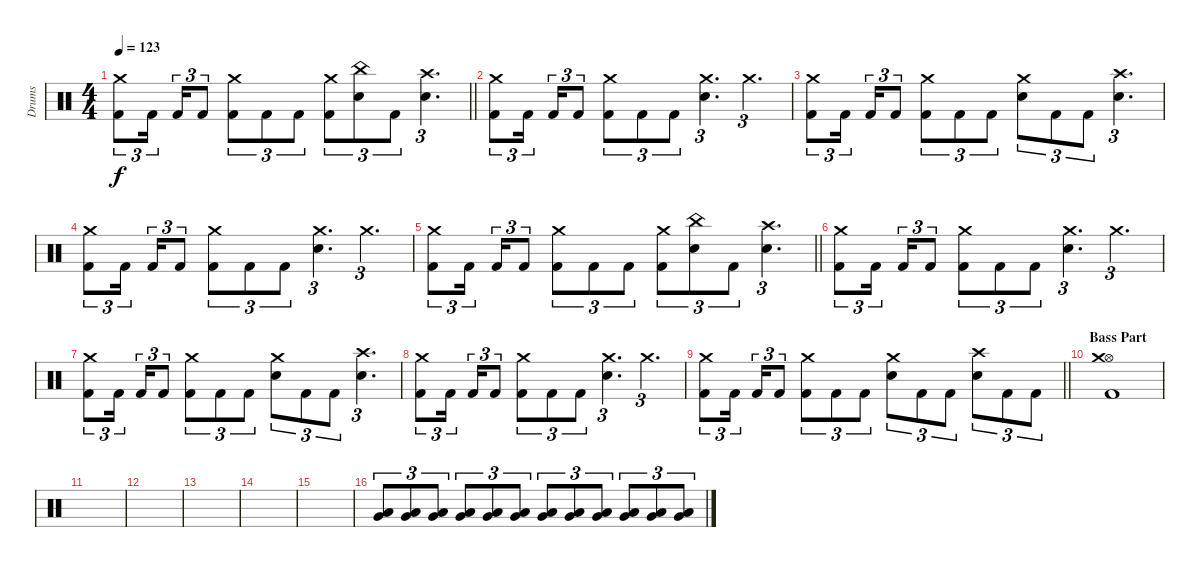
\track ("Drums" "Drums") {instrument percussion}
\staff {score}
\articulation defaults
\ts (4 4)
\tempo 123
\clef neutral
\barLineRight lightlight
\ks c
("Kick (hit) 2" "Crash medium (hit)").8{tu (3 2) dy f} "Kick (hit) 2".16{tu (3 2) beam splitsecondary} "Kick (hit) 2".16{tu (3 2)} "Kick (hit) 2".8{tu (3 2)} ("Kick (hit) 2" "Crash medium (hit)").8{tu (3 2)} "Kick (hit) 2".8{tu (3 2)} "Kick (hit) 2".8{tu (3 2)} ("Kick (hit) 2" "Crash medium (hit)").8{tu (3 2)} ("Snare (hit) 2" "China (hit)").8{tu (3 2)} "Kick (hit) 2".8{tu (3 2)} ("Snare (hit) 2" "Crash high (hit)").4{d tu (3 2)} |
\section ("" "")
("Kick (hit) 2" "Crash medium (hit)").8{tu (3 2)} "Kick (hit) 2".16{tu (3 2) beam splitsecondary} "Kick (hit) 2".16{tu (3 2)} "Kick (hit) 2".8{tu (3 2)} ("Kick (hit) 2" "Crash medium (hit)").8{tu (3 2)} "Kick (hit) 2".8{tu (3 2)} "Kick (hit) 2".8{tu (3 2)} ("Snare (hit) 2" "Crash medium (hit)").4{d tu (3 2)} "Crash medium (hit)".4{d tu (3 2)} |
("Kick (hit) 2" "Crash medium (hit)").8{tu (3 2)} "Kick (hit) 2".16{tu (3 2) beam splitsecondary} "Kick (hit) 2".16{tu (3 2)} "Kick (hit) 2".8{tu (3 2)} ("Kick (hit) 2" "Crash medium (hit)").8{tu (3 2)} "Kick (hit) 2".8{tu (3 2)} "Kick (hit) 2".8{tu (3 2)} ("Snare (hit) 2" "Crash medium (hit)").8{tu (3 2)} "Kick (hit) 2".8{tu (3 2)} "Kick (hit) 2".8{tu (3 2)} ("Snare (hit) 2" "Crash high (hit)").4{d tu (3 2)} |
("Kick (hit) 2" "Crash medium (hit)").8{tu (3 2)} "Kick (hit) 2".16{tu (3 2) beam splitsecondary} "Kick (hit) 2".16{tu (3 2)} "Kick (hit) 2".8{tu (3 2)} ("Kick (hit) 2" "Crash medium (hit)").8{tu (3 2)} "Kick (hit) 2".8{tu (3 2)} "Kick (hit) 2".8{tu (3 2)} ("Snare (hit) 2" "Crash medium (hit)").4{d tu (3 2)} "Crash medium (hit)".4{d tu (3 2)} |
\barLineRight lightlight
("Kick (hit) 2" "Crash medium (hit)").8{tu (3 2)} "Kick (hit) 2".16{tu (3 2) beam splitsecondary} "Kick (hit) 2".16{tu (3 2)} "Kick (hit) 2".8{tu (3 2)} ("Kick (hit) 2" "Crash medium (hit)").8{tu (3 2)} "Kick (hit) 2".8{tu (3 2)} "Kick (hit) 2".8{tu (3 2)} ("Kick (hit) 2" "Crash medium (hit)").8{tu (3 2)} ("Snare (hit) 2" "China (hit)").8{tu (3 2)} "Kick (hit) 2".8{tu (3 2)} ("Snare (hit) 2" "Crash high (hit)").4{d tu (3 2)} |
\section ("" "")
("Kick (hit) 2" "Crash medium (hit)").8{tu (3 2)} "Kick (hit) 2".16{tu (3 2) beam splitsecondary} "Kick (hit) 2".16{tu (3 2)} "Kick (hit) 2".8{tu (3 2)} ("Kick (hit) 2" "Crash medium (hit)").8{tu (3 2)} "Kick (hit) 2".8{tu (3 2)} "Kick (hit) 2".8{tu (3 2)} ("Snare (hit) 2" "Crash medium (hit)").4{d tu (3 2)} "Crash medium (hit)".4{d tu (3 2)} |
("Kick (hit) 2" "Crash medium (hit)").8{tu (3 2)} "Kick (hit) 2".16{tu (3 2) beam splitsecondary} "Kick (hit) 2".16{tu (3 2)} "Kick (hit) 2".8{tu (3 2)} ("Kick (hit) 2" "Crash medium (hit)").8{tu (3 2)} "Kick (hit) 2".8{tu (3 2)} "Kick (hit) 2".8{tu (3 2)} ("Snare (hit) 2" "Crash medium (hit)").8{tu (3 2)} "Kick (hit) 2".8{tu (3 2)} "Kick (hit) 2".8{tu (3 2)} ("Snare (hit) 2" "Crash high (hit)").4{d tu (3 2)} |
("Kick (hit) 2" "Crash medium (hit)").8{tu (3 2)} "Kick (hit) 2".16{tu (3 2) beam splitsecondary} "Kick (hit) 2".16{tu (3 2)} "Kick (hit) 2".8{tu (3 2)} ("Kick (hit) 2" "Crash medium (hit)").8{tu (3 2)} "Kick (hit) 2".8{tu (3 2)} "Kick (hit) 2".8{tu (3 2)} ("Snare (hit) 2" "Crash medium (hit)").4{d tu (3 2)} "Crash medium (hit)".4{d tu (3 2)} |
\barLineRight lightlight
("Kick (hit) 2" "Crash medium (hit)").8{tu (3 2)} "Kick (hit) 2".16{tu (3 2) beam splitsecondary} "Kick (hit) 2".16{tu (3 2)} "Kick (hit) 2".8{tu (3 2)} ("Kick (hit) 2" "Crash medium (hit)").8{tu (3 2)} "Kick (hit) 2".8{tu (3 2)} "Kick (hit) 2".8{tu (3 2)} ("Snare (hit) 2" "Crash medium (hit)").8{tu (3 2)} "Kick (hit) 2".8{tu (3 2)} "Kick (hit) 2".8{tu (3 2)} ("Snare (hit) 2" "Crash high (hit)").8{tu (3 2)} "Kick (hit) 2".8{tu (3 2)} "Kick (hit) 2".8{tu (3 2)} |
\section ("" "Bass Part")
("Kick (hit) 2" "Hi-Hat (open)" "Crash medium (hit)").1 |
|
|
|
|
|
("Very Low Tom (hit)" "Low Floor Tom (hit)").8{tu (3 2) volume 13} ("Very Low Tom (hit)" "Low Floor Tom (hit)").8{tu (3 2)} ("Very Low Tom (hit)" "Low Floor Tom (hit)").8{tu (3 2)} ("Very Low Tom (hit)" "Low Floor Tom (hit)").8{tu (3 2)} ("Very Low Tom (hit)" "Low Floor Tom (hit)").8{tu (3 2)} ("Very Low Tom (hit)" "Low Floor Tom (hit)").8{tu (3 2)} ("Very Low Tom (hit)" "Low Floor Tom (hit)").8{tu (3 2)} ("Very Low Tom (hit)" "Low Floor Tom (hit)").8{tu (3 2)} ("Very Low Tom (hit)" "Low Floor Tom (hit)").8{tu (3 2)} ("Very Low Tom (hit)" "Low Floor Tom (hit)").8{tu (3 2)} ("Very Low Tom (hit)" "Low Floor Tom (hit)").8{tu (3 2)} ("Very Low Tom (hit)" "Low Floor Tom (hit)").8{tu (3 2)}
